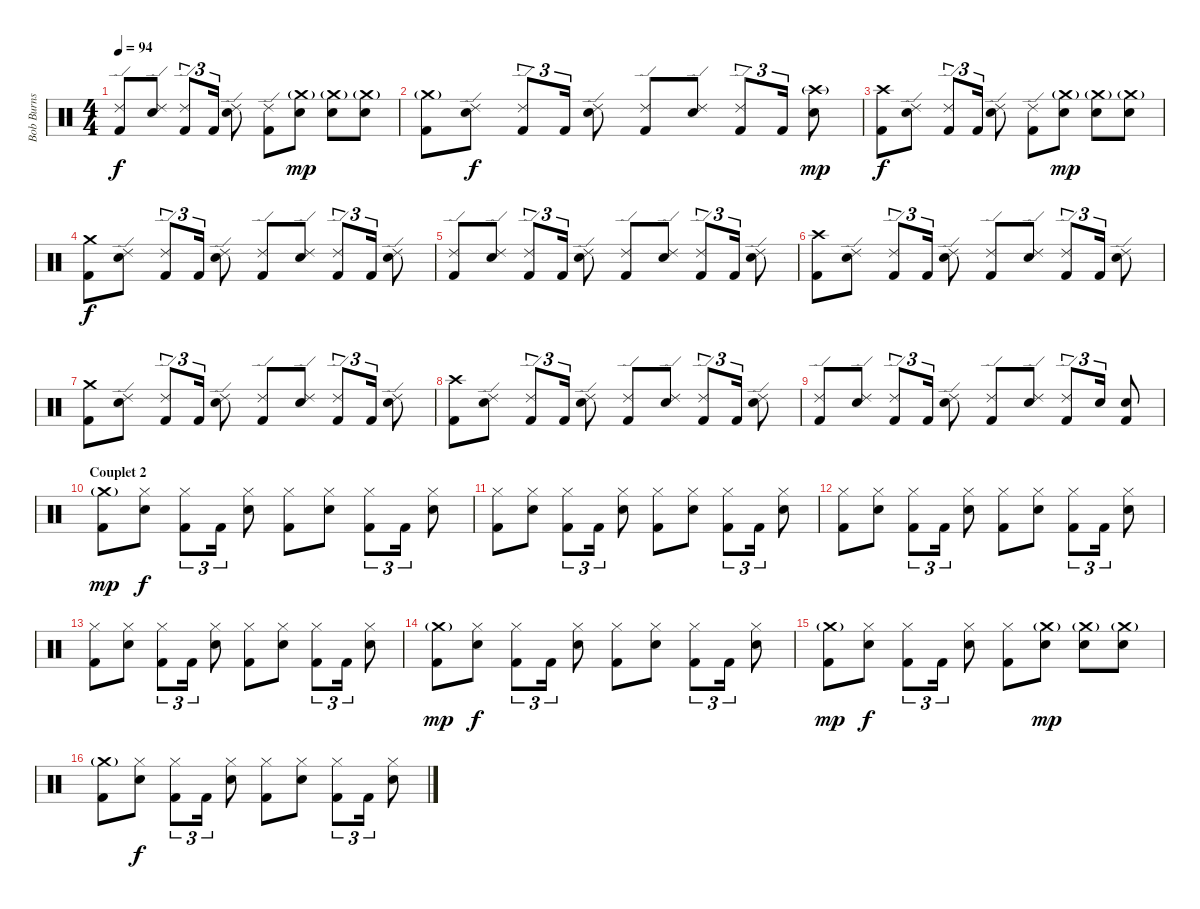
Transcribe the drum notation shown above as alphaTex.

\track ("Bob Burns (drums)" "Bob Burns ") {instrument percussion}
\staff {score}
\articulation defaults
\ts (4 4)
\tempo 94
\clef neutral
\ks c
("Ride (edge) 2" "Kick (hit) 2").8{dy f} ("Ride (edge) 2" "Electric Snare (hit)").8 ("Ride (edge) 2" "Kick (hit) 2").8{tu (3 2)} "Kick (hit) 2".16{tu (3 2)} ("Ride (edge) 2" "Electric Snare (hit)").8 ("Ride (edge) 2" "Kick (hit) 2").8 ("Crash medium (hit)"{g} "Electric Snare (hit)").8{dy mp} ("Crash medium (hit)"{g} "Electric Snare (hit)").8 ("Crash medium (hit)"{g} "Electric Snare (hit)").8 |
("Crash medium (hit)"{g} "Kick (hit) 2").8 ("Ride (edge) 2" "Electric Snare (hit)").8{dy f} ("Ride (edge) 2" "Kick (hit) 2").8{tu (3 2)} "Kick (hit) 2".16{tu (3 2)} ("Ride (edge) 2" "Electric Snare (hit)").8 ("Ride (edge) 2" "Kick (hit) 2").8 ("Ride (edge) 2" "Electric Snare (hit)").8 ("Ride (edge) 2" "Kick (hit) 2").8{tu (3 2)} "Kick (hit) 2".16{tu (3 2)} ("Crash high (hit)"{g} "Electric Snare (hit)").8{dy mp} |
("Crash high (hit)" "Kick (hit) 2").8{dy f} ("Ride (edge) 2" "Electric Snare (hit)").8 ("Ride (edge) 2" "Kick (hit) 2").8{tu (3 2)} "Kick (hit) 2".16{tu (3 2)} ("Ride (edge) 2" "Electric Snare (hit)").8 ("Ride (edge) 2" "Kick (hit) 2").8 ("Crash medium (hit)"{g} "Electric Snare (hit)").8{dy mp} ("Crash medium (hit)"{g} "Electric Snare (hit)").8 ("Crash medium (hit)"{g} "Electric Snare (hit)").8 |
("Crash medium (hit)" "Kick (hit) 2").8{dy f} ("Ride (edge) 2" "Electric Snare (hit)").8 ("Ride (edge) 2" "Kick (hit) 2").8{tu (3 2)} "Kick (hit) 2".16{tu (3 2)} ("Ride (edge) 2" "Electric Snare (hit)").8 ("Ride (edge) 2" "Kick (hit) 2").8 ("Ride (edge) 2" "Electric Snare (hit)").8 ("Ride (edge) 2" "Kick (hit) 2").8{tu (3 2)} "Kick (hit) 2".16{tu (3 2)} ("Ride (edge) 2" "Electric Snare (hit)").8 |
("Ride (edge) 2" "Kick (hit) 2").8 ("Ride (edge) 2" "Electric Snare (hit)").8 ("Ride (edge) 2" "Kick (hit) 2").8{tu (3 2)} "Kick (hit) 2".16{tu (3 2)} ("Ride (edge) 2" "Electric Snare (hit)").8 ("Ride (edge) 2" "Kick (hit) 2").8 ("Ride (edge) 2" "Electric Snare (hit)").8 ("Ride (edge) 2" "Kick (hit) 2").8{tu (3 2)} "Kick (hit) 2".16{tu (3 2)} ("Ride (edge) 2" "Electric Snare (hit)").8 |
("Crash high (hit)" "Kick (hit) 2").8 ("Ride (edge) 2" "Electric Snare (hit)").8 ("Ride (edge) 2" "Kick (hit) 2").8{tu (3 2)} "Kick (hit) 2".16{tu (3 2)} ("Ride (edge) 2" "Electric Snare (hit)").8 ("Ride (edge) 2" "Kick (hit) 2").8 ("Ride (edge) 2" "Electric Snare (hit)").8 ("Ride (edge) 2" "Kick (hit) 2").8{tu (3 2)} "Kick (hit) 2".16{tu (3 2)} ("Ride (edge) 2" "Electric Snare (hit)").8 |
("Crash medium (hit)" "Kick (hit) 2").8 ("Ride (edge) 2" "Electric Snare (hit)").8 ("Ride (edge) 2" "Kick (hit) 2").8{tu (3 2)} "Kick (hit) 2".16{tu (3 2)} ("Ride (edge) 2" "Electric Snare (hit)").8 ("Ride (edge) 2" "Kick (hit) 2").8 ("Ride (edge) 2" "Electric Snare (hit)").8 ("Ride (edge) 2" "Kick (hit) 2").8{tu (3 2)} "Kick (hit) 2".16{tu (3 2)} ("Ride (edge) 2" "Electric Snare (hit)").8 |
("Crash high (hit)" "Kick (hit) 2").8 ("Ride (edge) 2" "Electric Snare (hit)").8 ("Ride (edge) 2" "Kick (hit) 2").8{tu (3 2)} "Kick (hit) 2".16{tu (3 2)} ("Ride (edge) 2" "Electric Snare (hit)").8 ("Ride (edge) 2" "Kick (hit) 2").8 ("Ride (edge) 2" "Electric Snare (hit)").8 ("Ride (edge) 2" "Kick (hit) 2").8{tu (3 2)} "Kick (hit) 2".16{tu (3 2)} ("Ride (edge) 2" "Electric Snare (hit)").8 |
("Ride (edge) 2" "Kick (hit) 2").8 ("Ride (edge) 2" "Electric Snare (hit)").8 ("Ride (edge) 2" "Kick (hit) 2").8{tu (3 2)} "Kick (hit) 2".16{tu (3 2)} ("Ride (edge) 2" "Electric Snare (hit)").8 ("Ride (edge) 2" "Kick (hit) 2").8 ("Ride (edge) 2" "Electric Snare (hit)").8 ("Ride (edge) 2" "Kick (hit) 2").8{tu (3 2)} "Electric Snare (hit)".16{tu (3 2)} ("Electric Snare (hit)" "Kick (hit) 2").8 |
\section ("" "Couplet 2")
("Crash medium (hit)"{g} "Kick (hit) 2").8{dy mp} ("Hi-Hat (closed)" "Electric Snare (hit)").8{dy f} ("Hi-Hat (closed)" "Kick (hit) 2").8{tu (3 2)} "Kick (hit) 2".16{tu (3 2)} ("Hi-Hat (closed)" "Electric Snare (hit)").8 ("Hi-Hat (closed)" "Kick (hit) 2").8 ("Hi-Hat (closed)" "Electric Snare (hit)").8 ("Hi-Hat (closed)" "Kick (hit) 2").8{tu (3 2)} "Kick (hit) 2".16{tu (3 2)} ("Hi-Hat (closed)" "Electric Snare (hit)").8 |
("Hi-Hat (closed)" "Kick (hit) 2").8 ("Hi-Hat (closed)" "Electric Snare (hit)").8 ("Hi-Hat (closed)" "Kick (hit) 2").8{tu (3 2)} "Kick (hit) 2".16{tu (3 2)} ("Hi-Hat (closed)" "Electric Snare (hit)").8 ("Hi-Hat (closed)" "Kick (hit) 2").8 ("Hi-Hat (closed)" "Electric Snare (hit)").8 ("Hi-Hat (closed)" "Kick (hit) 2").8{tu (3 2)} "Kick (hit) 2".16{tu (3 2)} ("Hi-Hat (closed)" "Electric Snare (hit)").8 |
("Hi-Hat (closed)" "Kick (hit) 2").8 ("Hi-Hat (closed)" "Electric Snare (hit)").8 ("Hi-Hat (closed)" "Kick (hit) 2").8{tu (3 2)} "Kick (hit) 2".16{tu (3 2)} ("Hi-Hat (closed)" "Electric Snare (hit)").8 ("Hi-Hat (closed)" "Kick (hit) 2").8 ("Hi-Hat (closed)" "Electric Snare (hit)").8 ("Hi-Hat (closed)" "Kick (hit) 2").8{tu (3 2)} "Kick (hit) 2".16{tu (3 2)} ("Hi-Hat (closed)" "Electric Snare (hit)").8 |
("Hi-Hat (closed)" "Kick (hit) 2").8 ("Hi-Hat (closed)" "Electric Snare (hit)").8 ("Hi-Hat (closed)" "Kick (hit) 2").8{tu (3 2)} "Kick (hit) 2".16{tu (3 2)} ("Hi-Hat (closed)" "Electric Snare (hit)").8 ("Hi-Hat (closed)" "Kick (hit) 2").8 ("Hi-Hat (closed)" "Electric Snare (hit)").8 ("Hi-Hat (closed)" "Kick (hit) 2").8{tu (3 2)} "Kick (hit) 2".16{tu (3 2)} ("Hi-Hat (closed)" "Electric Snare (hit)").8 |
("Crash medium (hit)"{g} "Kick (hit) 2").8{dy mp} ("Hi-Hat (closed)" "Electric Snare (hit)").8{dy f} ("Hi-Hat (closed)" "Kick (hit) 2").8{tu (3 2)} "Kick (hit) 2".16{tu (3 2)} ("Hi-Hat (closed)" "Electric Snare (hit)").8 ("Hi-Hat (closed)" "Kick (hit) 2").8 ("Hi-Hat (closed)" "Electric Snare (hit)").8 ("Hi-Hat (closed)" "Kick (hit) 2").8{tu (3 2)} "Kick (hit) 2".16{tu (3 2)} ("Hi-Hat (closed)" "Electric Snare (hit)").8 |
("Crash medium (hit)"{g} "Kick (hit) 2").8{dy mp} ("Hi-Hat (closed)" "Electric Snare (hit)").8{dy f} ("Hi-Hat (closed)" "Kick (hit) 2").8{tu (3 2)} "Kick (hit) 2".16{tu (3 2)} ("Hi-Hat (closed)" "Electric Snare (hit)").8 ("Hi-Hat (closed)" "Kick (hit) 2").8 ("Crash medium (hit)"{g} "Electric Snare (hit)").8{dy mp} ("Crash medium (hit)"{g} "Electric Snare (hit)").8 ("Crash medium (hit)"{g} "Electric Snare (hit)").8 |
("Crash medium (hit)"{g} "Kick (hit) 2").8 ("Hi-Hat (closed)" "Electric Snare (hit)").8{dy f} ("Hi-Hat (closed)" "Kick (hit) 2").8{tu (3 2)} "Kick (hit) 2".16{tu (3 2)} ("Hi-Hat (closed)" "Electric Snare (hit)").8 ("Hi-Hat (closed)" "Kick (hit) 2").8 ("Hi-Hat (closed)" "Electric Snare (hit)").8 ("Hi-Hat (closed)" "Kick (hit) 2").8{tu (3 2)} "Kick (hit) 2".16{tu (3 2)} ("Hi-Hat (closed)" "Electric Snare (hit)").8
